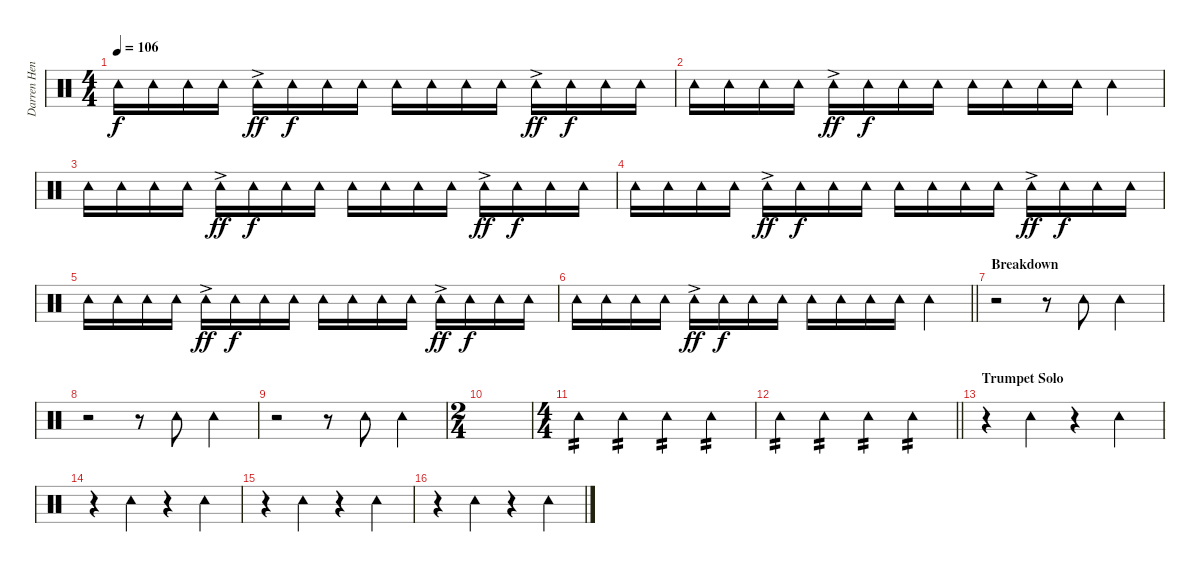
\track ("Darren Henley [Percussion]" "Darren Hen") {instrument percussion}
\staff {score}
\articulation defaults
\ts (4 4)
\tempo 106
\clef neutral
\ks c "Tambourine (hit)".16{dy f} "Tambourine (hit)".16 "Tambourine (hit)".16 "Tambourine (hit)".16 "Tambourine (hit)"{ac}.16{dy ff} "Tambourine (hit)".16{dy f} "Tambourine (hit)".16 "Tambourine (hit)".16 "Tambourine (hit)".16 "Tambourine (hit)".16 "Tambourine (hit)".16 "Tambourine (hit)".16 "Tambourine (hit)"{ac}.16{dy ff} "Tambourine (hit)".16{dy f} "Tambourine (hit)".16 "Tambourine (hit)".16
|
"Tambourine (hit)".16 "Tambourine (hit)".16 "Tambourine (hit)".16 "Tambourine (hit)".16 "Tambourine (hit)"{ac}.16{dy ff} "Tambourine (hit)".16{dy f} "Tambourine (hit)".16 "Tambourine (hit)".16 "Tambourine (hit)".16 "Tambourine (hit)".16 "Tambourine (hit)".16 "Tambourine (hit)".16 "Tambourine (hit)".4 |
"Tambourine (hit)".16 "Tambourine (hit)".16 "Tambourine (hit)".16 "Tambourine (hit)".16 "Tambourine (hit)"{ac}.16{dy ff} "Tambourine (hit)".16{dy f} "Tambourine (hit)".16 "Tambourine (hit)".16 "Tambourine (hit)".16 "Tambourine (hit)".16 "Tambourine (hit)".16 "Tambourine (hit)".16 "Tambourine (hit)"{ac}.16{dy ff} "Tambourine (hit)".16{dy f} "Tambourine (hit)".16 "Tambourine (hit)".16 |
"Tambourine (hit)".16 "Tambourine (hit)".16 "Tambourine (hit)".16 "Tambourine (hit)".16 "Tambourine (hit)"{ac}.16{dy ff} "Tambourine (hit)".16{dy f} "Tambourine (hit)".16 "Tambourine (hit)".16 "Tambourine (hit)".16 "Tambourine (hit)".16 "Tambourine (hit)".16 "Tambourine (hit)".16 "Tambourine (hit)"{ac}.16{dy ff} "Tambourine (hit)".16{dy f} "Tambourine (hit)".16 "Tambourine (hit)".16 |
"Tambourine (hit)".16 "Tambourine (hit)".16 "Tambourine (hit)".16 "Tambourine (hit)".16 "Tambourine (hit)"{ac}.16{dy ff} "Tambourine (hit)".16{dy f} "Tambourine (hit)".16 "Tambourine (hit)".16 "Tambourine (hit)".16 "Tambourine (hit)".16 "Tambourine (hit)".16 "Tambourine (hit)".16 "Tambourine (hit)"{ac}.16{dy ff} "Tambourine (hit)".16{dy f} "Tambourine (hit)".16 "Tambourine (hit)".16 |
\barLineRight lightlight "Tambourine (hit)".16 "Tambourine (hit)".16 "Tambourine (hit)".16 "Tambourine (hit)".16 "Tambourine (hit)"{ac}.16{dy ff} "Tambourine (hit)".16{dy f} "Tambourine (hit)".16 "Tambourine (hit)".16 "Tambourine (hit)".16 "Tambourine (hit)".16 "Tambourine (hit)".16 "Tambourine (hit)".16 "Tambourine (hit)".4
|
\section ("" "Breakdown")
r.2 r.8 "Tambourine (hit)".8 "Tambourine (hit)".4 |
r.2 r.8 "Tambourine (hit)".8 "Tambourine (hit)".4 |
r.2 r.8 "Tambourine (hit)".8 "Tambourine (hit)".4 |
\ts (2 4)
|
\ts (4 4)
"Tambourine (hit)".4{tp 2} "Tambourine (hit)".4{tp 2} "Tambourine (hit)".4{tp 2} "Tambourine (hit)".4{tp 2} |
\barLineRight lightlight "Tambourine (hit)".4{tp 2} "Tambourine (hit)".4{tp 2} "Tambourine (hit)".4{tp 2} "Tambourine (hit)".4{tp 2}
|
\section ("" "Trumpet Solo")
r.4 "Tambourine (hit)".4 r.4 "Tambourine (hit)".4 |
r.4 "Tambourine (hit)".4 r.4 "Tambourine (hit)".4 |
r.4 "Tambourine (hit)".4 r.4 "Tambourine (hit)".4 |
r.4 "Tambourine (hit)".4 r.4 "Tambourine (hit)".4
